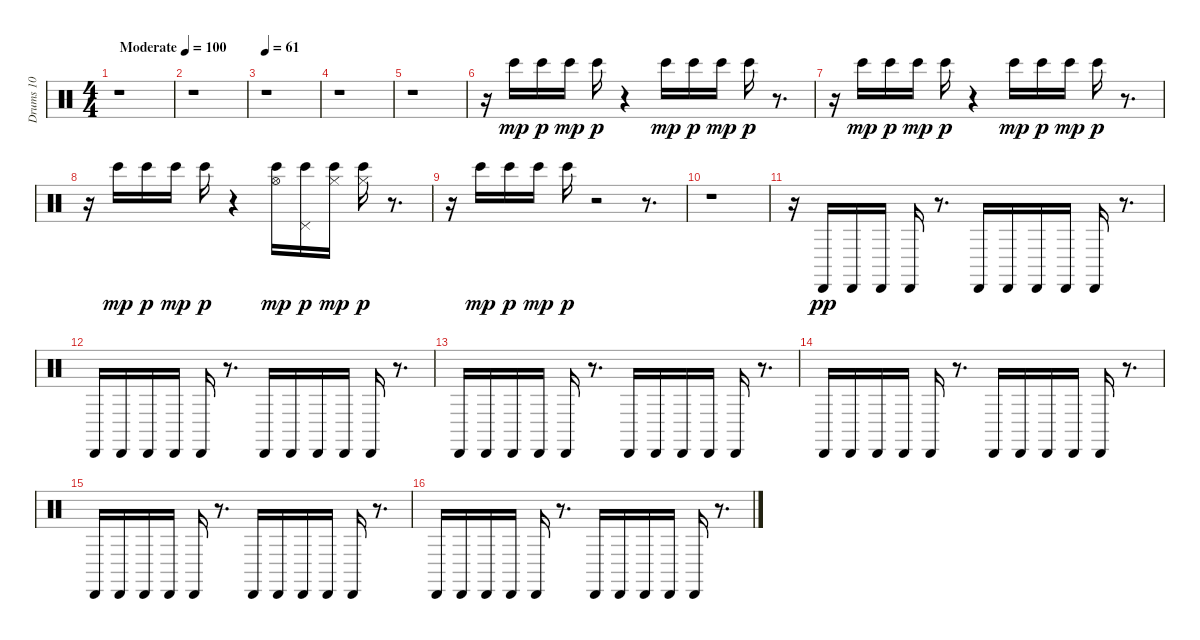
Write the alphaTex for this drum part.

\track ("Drums 10" "Drums 10") {instrument percussion}
\staff {score}
\articulation defaults
\ts (4 4)
\tempo (100 "Moderate")
\clef neutral
\ks c
r.1{dy mp} |
r.1 |
\tempo 61
r.1 |
r.1 |
r.1 |
r.16 "Bongo High (hit)".16 "Bongo High (hit)".16{dy p} "Bongo High (hit)".16{dy mp} "Bongo High (hit)".16{dy p} r.4 "Bongo High (hit)".16{dy mp} "Bongo High (hit)".16{dy p} "Bongo High (hit)".16{dy mp} "Bongo High (hit)".16{dy p} r.8{d} |
r.16 "Bongo High (hit)".16{dy mp} "Bongo High (hit)".16{dy p} "Bongo High (hit)".16{dy mp} "Bongo High (hit)".16{dy p} r.4 "Bongo High (hit)".16{dy mp} "Bongo High (hit)".16{dy p} "Bongo High (hit)".16{dy mp} "Bongo High (hit)".16{dy p} r.8{d} |
r.16 "Bongo High (hit)".16{dy mp} "Bongo High (hit)".16{dy p} "Bongo High (hit)".16{dy mp} "Bongo High (hit)".16{dy p} r.4 ("Hi-Hat (open)" "Bongo High (hit)").16{dy mp} ("Pedal Hi-Hat (hit)" "Bongo High (hit)").16{dy p} ("Hi-Hat (closed)" "Bongo High (hit)").16{dy mp} ("Hi-Hat (closed)" "Bongo High (hit)").16{dy p} r.8{d} |
r.16 "Bongo High (hit)".16{dy mp} "Bongo High (hit)".16{dy p} "Bongo High (hit)".16{dy mp} "Bongo High (hit)".16{dy p} r.2 r.8{d} |
r.1 |
r.16 "Cabasa (hit)".16{dy pp} "Cabasa (hit)".16 "Cabasa (hit)".16 "Cabasa (hit)".16 r.8{d} "Cabasa (hit)".16 "Cabasa (hit)".16 "Cabasa (hit)".16 "Cabasa (hit)".16 "Cabasa (hit)".16 r.8{d} |
"Cabasa (hit)".16 "Cabasa (hit)".16 "Cabasa (hit)".16 "Cabasa (hit)".16 "Cabasa (hit)".16 r.8{d} "Cabasa (hit)".16 "Cabasa (hit)".16 "Cabasa (hit)".16 "Cabasa (hit)".16 "Cabasa (hit)".16 r.8{d} |
"Cabasa (hit)".16 "Cabasa (hit)".16 "Cabasa (hit)".16 "Cabasa (hit)".16 "Cabasa (hit)".16 r.8{d} "Cabasa (hit)".16 "Cabasa (hit)".16 "Cabasa (hit)".16 "Cabasa (hit)".16 "Cabasa (hit)".16 r.8{d} |
"Cabasa (hit)".16 "Cabasa (hit)".16 "Cabasa (hit)".16 "Cabasa (hit)".16 "Cabasa (hit)".16 r.8{d} "Cabasa (hit)".16 "Cabasa (hit)".16 "Cabasa (hit)".16 "Cabasa (hit)".16 "Cabasa (hit)".16 r.8{d} |
"Cabasa (hit)".16 "Cabasa (hit)".16 "Cabasa (hit)".16 "Cabasa (hit)".16 "Cabasa (hit)".16 r.8{d} "Cabasa (hit)".16 "Cabasa (hit)".16 "Cabasa (hit)".16 "Cabasa (hit)".16 "Cabasa (hit)".16 r.8{d} |
"Cabasa (hit)".16 "Cabasa (hit)".16 "Cabasa (hit)".16 "Cabasa (hit)".16 "Cabasa (hit)".16 r.8{d} "Cabasa (hit)".16 "Cabasa (hit)".16 "Cabasa (hit)".16 "Cabasa (hit)".16 "Cabasa (hit)".16 r.8{d}
